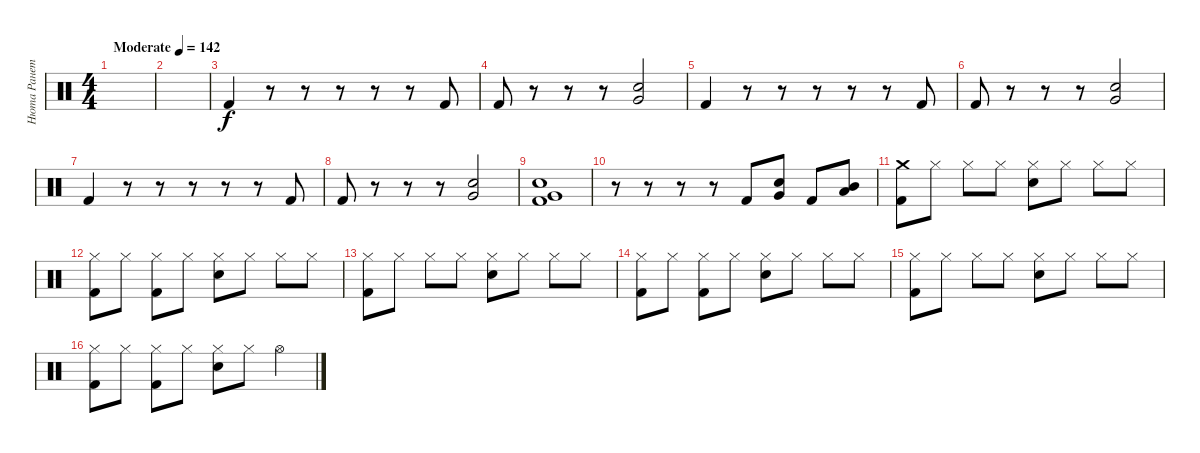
\track ("Нюта Ранетка" "Нюта Ранет") {instrument percussion}
\staff {score}
\articulation defaults
\ts (4 4)
\tempo (142 "Moderate")
\clef neutral
\ks c
|
|
"Kick (hit) 2".4 r.8 r.8 r.8 r.8 r.8 "Kick (hit) 2".8 |
"Kick (hit) 2".8 r.8 r.8 r.8 ("Snare (hit) 2" "Very Low Tom (hit)").2 |
"Kick (hit) 2".4 r.8 r.8 r.8 r.8 r.8 "Kick (hit) 2".8 |
"Kick (hit) 2".8 r.8 r.8 r.8 ("Snare (hit) 2" "Very Low Tom (hit)").2 |
"Kick (hit) 2".4 r.8 r.8 r.8 r.8 r.8 "Kick (hit) 2".8 |
"Kick (hit) 2".8 r.8 r.8 r.8 ("Snare (hit) 2" "Very Low Tom (hit)").2 |
("Snare (hit) 2" "Very Low Tom (hit)" "Kick (hit) 2").1 |
r.8 r.8 r.8 r.8 "Kick (hit) 2".8 ("Very Low Tom (hit)" "Snare (hit) 2").8 "Kick (hit) 2".8 ("Low Tom (hit)" "Mid Tom (hit)").8 |
("Crash medium (hit)" "Kick (hit) 2").8 "Hi-Hat (closed)".8 "Hi-Hat (closed)".8 "Hi-Hat (closed)".8 ("Hi-Hat (closed)" "Snare (hit) 2").8 "Hi-Hat (closed)".8 "Hi-Hat (closed)".8 "Hi-Hat (closed)".8 |
("Hi-Hat (closed)" "Kick (hit) 2").8 "Hi-Hat (closed)".8 ("Hi-Hat (closed)" "Kick (hit) 2").8 "Hi-Hat (closed)".8 ("Hi-Hat (closed)" "Snare (hit) 2").8 "Hi-Hat (closed)".8 "Hi-Hat (closed)".8 "Hi-Hat (closed)".8 |
("Hi-Hat (closed)" "Kick (hit) 2").8 "Hi-Hat (closed)".8 "Hi-Hat (closed)".8 "Hi-Hat (closed)".8 ("Hi-Hat (closed)" "Snare (hit) 2").8 "Hi-Hat (closed)".8 "Hi-Hat (closed)".8 "Hi-Hat (closed)".8 |
("Hi-Hat (closed)" "Kick (hit) 2").8 "Hi-Hat (closed)".8 ("Hi-Hat (closed)" "Kick (hit) 2").8 "Hi-Hat (closed)".8 ("Hi-Hat (closed)" "Snare (hit) 2").8 "Hi-Hat (closed)".8 "Hi-Hat (closed)".8 "Hi-Hat (closed)".8 |
("Hi-Hat (closed)" "Kick (hit) 2").8 "Hi-Hat (closed)".8 "Hi-Hat (closed)".8 "Hi-Hat (closed)".8 ("Hi-Hat (closed)" "Snare (hit) 2").8 "Hi-Hat (closed)".8 "Hi-Hat (closed)".8 "Hi-Hat (closed)".8 |
("Hi-Hat (closed)" "Kick (hit) 2").8 "Hi-Hat (closed)".8 ("Hi-Hat (closed)" "Kick (hit) 2").8 "Hi-Hat (closed)".8 ("Hi-Hat (closed)" "Snare (hit) 2").8 "Hi-Hat (closed)".8 "Hi-Hat (open)".4
